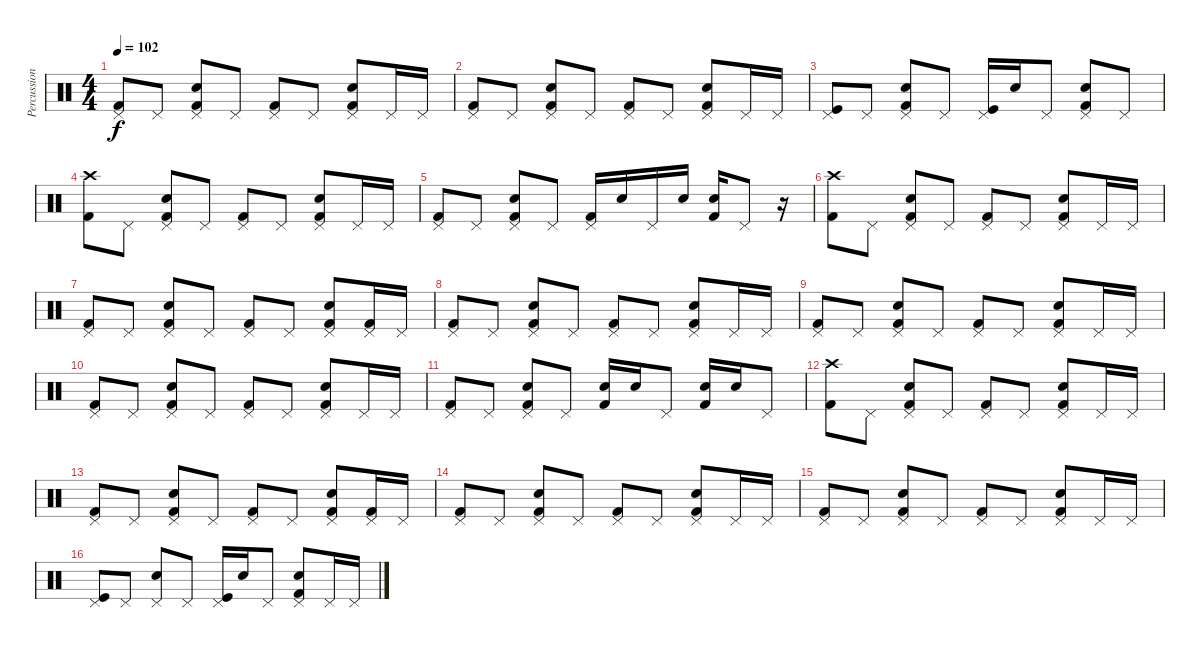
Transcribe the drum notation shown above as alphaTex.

\track ("Percussion" "Percussion") {instrument percussion}
\staff {score}
\articulation defaults
\ts (4 4)
\tempo 102
\clef neutral
\ks c
("Pedal Hi-Hat (hit)" "Kick (hit) 2").8{dy f} "Pedal Hi-Hat (hit)".8 ("Pedal Hi-Hat (hit)" "Snare (hit) 2" "Kick (hit) 2").8 "Pedal Hi-Hat (hit)".8 ("Pedal Hi-Hat (hit)" "Kick (hit) 2").8 "Pedal Hi-Hat (hit)".8 ("Pedal Hi-Hat (hit)" "Snare (hit) 2" "Kick (hit) 2").8 "Pedal Hi-Hat (hit)".16 "Pedal Hi-Hat (hit)".16 |
("Pedal Hi-Hat (hit)" "Kick (hit) 2").8 "Pedal Hi-Hat (hit)".8 ("Pedal Hi-Hat (hit)" "Snare (hit) 2" "Kick (hit) 2").8 "Pedal Hi-Hat (hit)".8 ("Pedal Hi-Hat (hit)" "Kick (hit) 2").8 "Pedal Hi-Hat (hit)".8 ("Pedal Hi-Hat (hit)" "Snare (hit) 2" "Kick (hit) 2").8 "Pedal Hi-Hat (hit)".16 "Pedal Hi-Hat (hit)".16 |
("Pedal Hi-Hat (hit)" "Kick (hit)").8 "Pedal Hi-Hat (hit)".8 ("Pedal Hi-Hat (hit)" "Snare (hit) 2" "Kick (hit) 2").8 "Pedal Hi-Hat (hit)".8 ("Pedal Hi-Hat (hit)" "Kick (hit)").16 "Snare (hit) 2".16 "Pedal Hi-Hat (hit)".8 ("Pedal Hi-Hat (hit)" "Snare (hit) 2" "Kick (hit) 2").8 "Pedal Hi-Hat (hit)".8 |
("Crash high (hit)" "Kick (hit) 2").8 "Pedal Hi-Hat (hit)".8 ("Pedal Hi-Hat (hit)" "Snare (hit) 2" "Kick (hit) 2").8 "Pedal Hi-Hat (hit)".8 ("Pedal Hi-Hat (hit)" "Kick (hit) 2").8 "Pedal Hi-Hat (hit)".8 ("Pedal Hi-Hat (hit)" "Snare (hit) 2" "Kick (hit) 2").8 "Pedal Hi-Hat (hit)".16 "Pedal Hi-Hat (hit)".16 |
("Pedal Hi-Hat (hit)" "Kick (hit) 2").8 "Pedal Hi-Hat (hit)".8 ("Pedal Hi-Hat (hit)" "Snare (hit) 2" "Kick (hit) 2").8 "Pedal Hi-Hat (hit)".8 ("Pedal Hi-Hat (hit)" "Kick (hit) 2").16 "Snare (hit) 2".16 "Pedal Hi-Hat (hit)".16 "Snare (hit) 2".16 ("Snare (hit) 2" "Kick (hit) 2").16 "Pedal Hi-Hat (hit)".8 r.16 |
("Crash high (hit)" "Kick (hit) 2").8 "Pedal Hi-Hat (hit)".8 ("Pedal Hi-Hat (hit)" "Snare (hit) 2" "Kick (hit) 2").8 "Pedal Hi-Hat (hit)".8 ("Pedal Hi-Hat (hit)" "Kick (hit) 2").8 "Pedal Hi-Hat (hit)".8 ("Pedal Hi-Hat (hit)" "Snare (hit) 2" "Kick (hit) 2").8 "Pedal Hi-Hat (hit)".16 "Pedal Hi-Hat (hit)".16 |
("Pedal Hi-Hat (hit)" "Kick (hit) 2").8 "Pedal Hi-Hat (hit)".8 ("Pedal Hi-Hat (hit)" "Snare (hit) 2" "Kick (hit) 2").8 "Pedal Hi-Hat (hit)".8 ("Pedal Hi-Hat (hit)" "Kick (hit) 2").8 "Pedal Hi-Hat (hit)".8 ("Pedal Hi-Hat (hit)" "Snare (hit) 2" "Kick (hit) 2").8 ("Pedal Hi-Hat (hit)" "Kick (hit) 2").16 "Pedal Hi-Hat (hit)".16 |
("Pedal Hi-Hat (hit)" "Kick (hit) 2").8 "Pedal Hi-Hat (hit)".8 ("Pedal Hi-Hat (hit)" "Snare (hit) 2" "Kick (hit) 2").8 "Pedal Hi-Hat (hit)".8 ("Pedal Hi-Hat (hit)" "Kick (hit) 2").8 "Pedal Hi-Hat (hit)".8 ("Pedal Hi-Hat (hit)" "Snare (hit) 2" "Kick (hit) 2").8 "Pedal Hi-Hat (hit)".16 "Pedal Hi-Hat (hit)".16 |
("Pedal Hi-Hat (hit)" "Kick (hit) 2").8 "Pedal Hi-Hat (hit)".8 ("Pedal Hi-Hat (hit)" "Snare (hit) 2" "Kick (hit) 2").8 "Pedal Hi-Hat (hit)".8 ("Pedal Hi-Hat (hit)" "Kick (hit) 2").8 "Pedal Hi-Hat (hit)".8 ("Pedal Hi-Hat (hit)" "Snare (hit) 2" "Kick (hit) 2").8 "Pedal Hi-Hat (hit)".16 "Pedal Hi-Hat (hit)".16 |
("Pedal Hi-Hat (hit)" "Kick (hit) 2").8 "Pedal Hi-Hat (hit)".8 ("Pedal Hi-Hat (hit)" "Snare (hit) 2" "Kick (hit) 2").8 "Pedal Hi-Hat (hit)".8 ("Pedal Hi-Hat (hit)" "Kick (hit) 2").8 "Pedal Hi-Hat (hit)".8 ("Pedal Hi-Hat (hit)" "Snare (hit) 2" "Kick (hit) 2").8 "Pedal Hi-Hat (hit)".16 "Pedal Hi-Hat (hit)".16 |
("Pedal Hi-Hat (hit)" "Kick (hit) 2").8 "Pedal Hi-Hat (hit)".8 ("Pedal Hi-Hat (hit)" "Snare (hit) 2" "Kick (hit) 2").8 "Pedal Hi-Hat (hit)".8 ("Snare (hit) 2" "Kick (hit) 2").16 "Snare (hit) 2".16 "Pedal Hi-Hat (hit)".8 ("Snare (hit) 2" "Kick (hit) 2").16 "Snare (hit) 2".16 "Pedal Hi-Hat (hit)".8 |
("Crash high (hit)" "Kick (hit) 2").8 "Pedal Hi-Hat (hit)".8 ("Pedal Hi-Hat (hit)" "Snare (hit) 2" "Kick (hit) 2").8 "Pedal Hi-Hat (hit)".8 ("Pedal Hi-Hat (hit)" "Kick (hit) 2").8 "Pedal Hi-Hat (hit)".8 ("Pedal Hi-Hat (hit)" "Snare (hit) 2" "Kick (hit) 2").8 "Pedal Hi-Hat (hit)".16 "Pedal Hi-Hat (hit)".16 |
("Pedal Hi-Hat (hit)" "Kick (hit) 2").8 "Pedal Hi-Hat (hit)".8 ("Pedal Hi-Hat (hit)" "Snare (hit) 2" "Kick (hit) 2").8 "Pedal Hi-Hat (hit)".8 ("Pedal Hi-Hat (hit)" "Kick (hit) 2").8 "Pedal Hi-Hat (hit)".8 ("Pedal Hi-Hat (hit)" "Snare (hit) 2" "Kick (hit) 2").8 ("Pedal Hi-Hat (hit)" "Kick (hit) 2").16 "Pedal Hi-Hat (hit)".16 |
("Pedal Hi-Hat (hit)" "Kick (hit) 2").8 "Pedal Hi-Hat (hit)".8 ("Pedal Hi-Hat (hit)" "Snare (hit) 2" "Kick (hit) 2").8 "Pedal Hi-Hat (hit)".8 ("Pedal Hi-Hat (hit)" "Kick (hit) 2").8 "Pedal Hi-Hat (hit)".8 ("Pedal Hi-Hat (hit)" "Snare (hit) 2" "Kick (hit) 2").8 "Pedal Hi-Hat (hit)".16 "Pedal Hi-Hat (hit)".16 |
("Pedal Hi-Hat (hit)" "Kick (hit) 2").8 "Pedal Hi-Hat (hit)".8 ("Pedal Hi-Hat (hit)" "Snare (hit) 2" "Kick (hit) 2").8 "Pedal Hi-Hat (hit)".8 ("Pedal Hi-Hat (hit)" "Kick (hit) 2").8 "Pedal Hi-Hat (hit)".8 ("Pedal Hi-Hat (hit)" "Snare (hit) 2" "Kick (hit) 2").8 "Pedal Hi-Hat (hit)".16 "Pedal Hi-Hat (hit)".16 |
("Pedal Hi-Hat (hit)" "Kick (hit)").8 "Pedal Hi-Hat (hit)".8 ("Pedal Hi-Hat (hit)" "Snare (hit) 2").8 "Pedal Hi-Hat (hit)".8 ("Pedal Hi-Hat (hit)" "Kick (hit)").16 "Snare (hit) 2".16 "Pedal Hi-Hat (hit)".8 ("Pedal Hi-Hat (hit)" "Snare (hit) 2" "Kick (hit) 2").8 "Pedal Hi-Hat (hit)".16 "Pedal Hi-Hat (hit)".16
